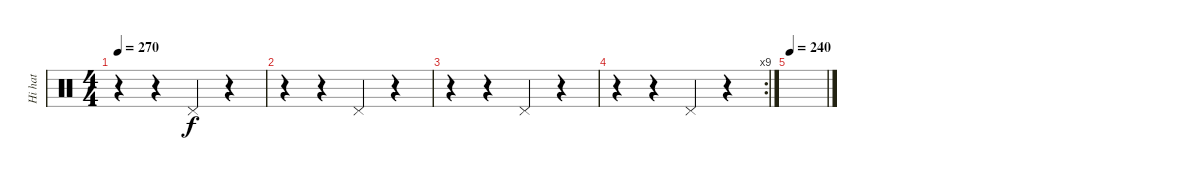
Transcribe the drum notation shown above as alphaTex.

\track ("Hi hat" "Hi hat") {instrument percussion}
\staff {score}
\articulation defaults
\ts (4 4)
\tempo 270
\clef neutral
\ks c
r.4{dy f} r.4 "Pedal Hi-Hat (hit)".4 r.4 |
r.4 r.4 "Pedal Hi-Hat (hit)".4 r.4 |
r.4 r.4 "Pedal Hi-Hat (hit)".4 r.4 |
\rc 9
r.4 r.4 "Pedal Hi-Hat (hit)".4 r.4 |
\tempo 240
